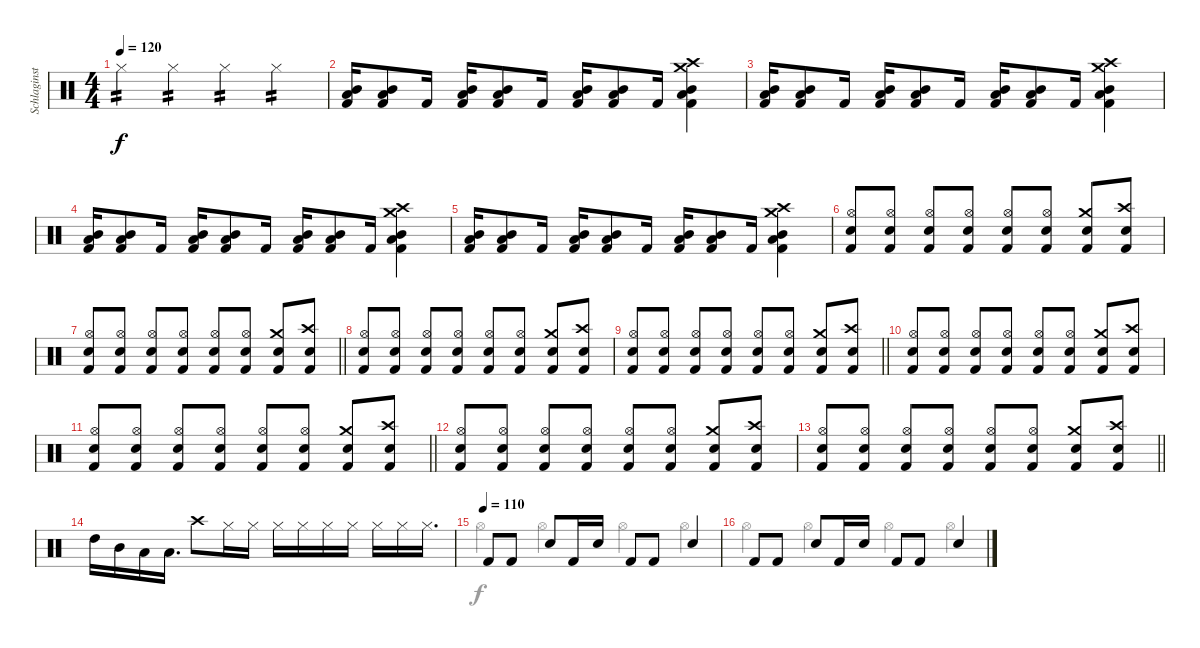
\track ("Schlaginstrumente - Auswahl" "Schlaginst") {instrument percussion}
\staff {score}
\articulation defaults
\voice
\ts (4 4)
\tempo 120
\clef neutral
\ks c "Hi-Hat (closed)".4{tp 2 dy f} "Hi-Hat (closed)".4{tp 2} "Hi-Hat (closed)".4{tp 2} "Hi-Hat (closed)".4{tp 2}
|
("Low Tom (hit)" "Mid Tom (hit)" "Kick (hit) 2").16 ("Low Tom (hit)" "Mid Tom (hit)" "Kick (hit) 2").8 "Kick (hit) 2".16 ("Low Tom (hit)" "Mid Tom (hit)" "Kick (hit) 2").16 ("Low Tom (hit)" "Mid Tom (hit)" "Kick (hit) 2").8 "Kick (hit) 2".16 ("Low Tom (hit)" "Mid Tom (hit)" "Kick (hit) 2").16 ("Low Tom (hit)" "Mid Tom (hit)" "Kick (hit) 2").8 "Kick (hit) 2".16 ("Crash medium (hit)" "Crash high (hit)" "Low Tom (hit)" "Mid Tom (hit)" "Kick (hit) 2").4 |
("Low Tom (hit)" "Mid Tom (hit)" "Kick (hit) 2").16 ("Low Tom (hit)" "Mid Tom (hit)" "Kick (hit) 2").8 "Kick (hit) 2".16 ("Low Tom (hit)" "Mid Tom (hit)" "Kick (hit) 2").16 ("Low Tom (hit)" "Mid Tom (hit)" "Kick (hit) 2").8 "Kick (hit) 2".16 ("Low Tom (hit)" "Mid Tom (hit)" "Kick (hit) 2").16 ("Low Tom (hit)" "Mid Tom (hit)" "Kick (hit) 2").8 "Kick (hit) 2".16 ("Crash medium (hit)" "Crash high (hit)" "Low Tom (hit)" "Mid Tom (hit)" "Kick (hit) 2").4 |
("Low Tom (hit)" "Mid Tom (hit)" "Kick (hit) 2").16 ("Low Tom (hit)" "Mid Tom (hit)" "Kick (hit) 2").8 "Kick (hit) 2".16 ("Low Tom (hit)" "Mid Tom (hit)" "Kick (hit) 2").16 ("Low Tom (hit)" "Mid Tom (hit)" "Kick (hit) 2").8 "Kick (hit) 2".16 ("Low Tom (hit)" "Mid Tom (hit)" "Kick (hit) 2").16 ("Low Tom (hit)" "Mid Tom (hit)" "Kick (hit) 2").8 "Kick (hit) 2".16 ("Crash medium (hit)" "Crash high (hit)" "Low Tom (hit)" "Mid Tom (hit)" "Kick (hit) 2").4 |
("Low Tom (hit)" "Mid Tom (hit)" "Kick (hit) 2").16 ("Low Tom (hit)" "Mid Tom (hit)" "Kick (hit) 2").8 "Kick (hit) 2".16 ("Low Tom (hit)" "Mid Tom (hit)" "Kick (hit) 2").16 ("Low Tom (hit)" "Mid Tom (hit)" "Kick (hit) 2").8 "Kick (hit) 2".16 ("Low Tom (hit)" "Mid Tom (hit)" "Kick (hit) 2").16 ("Low Tom (hit)" "Mid Tom (hit)" "Kick (hit) 2").8 "Kick (hit) 2".16 ("Crash medium (hit)" "Crash high (hit)" "Low Tom (hit)" "Mid Tom (hit)" "Kick (hit) 2").4 |
("Hi-Hat (open)" "Snare (hit) 2" "Kick (hit) 2").8 ("Hi-Hat (open)" "Snare (hit) 2" "Kick (hit) 2").8 ("Hi-Hat (open)" "Snare (hit) 2" "Kick (hit) 2").8 ("Hi-Hat (open)" "Snare (hit) 2" "Kick (hit) 2").8 ("Hi-Hat (open)" "Snare (hit) 2" "Kick (hit) 2").8 ("Hi-Hat (open)" "Snare (hit) 2" "Kick (hit) 2").8 ("Crash medium (hit)" "Snare (hit) 2" "Kick (hit) 2").8 ("Crash high (hit)" "Snare (hit) 2" "Kick (hit) 2").8 |
\barLineRight lightlight
("Hi-Hat (open)" "Snare (hit) 2" "Kick (hit) 2").8 ("Hi-Hat (open)" "Snare (hit) 2" "Kick (hit) 2").8 ("Hi-Hat (open)" "Snare (hit) 2" "Kick (hit) 2").8 ("Hi-Hat (open)" "Snare (hit) 2" "Kick (hit) 2").8 ("Hi-Hat (open)" "Snare (hit) 2" "Kick (hit) 2").8 ("Hi-Hat (open)" "Snare (hit) 2" "Kick (hit) 2").8 ("Crash medium (hit)" "Snare (hit) 2" "Kick (hit) 2").8 ("Crash high (hit)" "Snare (hit) 2" "Kick (hit) 2").8 |
("Hi-Hat (open)" "Snare (hit) 2" "Kick (hit) 2").8 ("Hi-Hat (open)" "Snare (hit) 2" "Kick (hit) 2").8 ("Hi-Hat (open)" "Snare (hit) 2" "Kick (hit) 2").8 ("Hi-Hat (open)" "Snare (hit) 2" "Kick (hit) 2").8 ("Hi-Hat (open)" "Snare (hit) 2" "Kick (hit) 2").8 ("Hi-Hat (open)" "Snare (hit) 2" "Kick (hit) 2").8 ("Crash medium (hit)" "Snare (hit) 2" "Kick (hit) 2").8 ("Crash high (hit)" "Snare (hit) 2" "Kick (hit) 2").8 |
\barLineRight lightlight
("Hi-Hat (open)" "Snare (hit) 2" "Kick (hit) 2").8 ("Hi-Hat (open)" "Snare (hit) 2" "Kick (hit) 2").8 ("Hi-Hat (open)" "Snare (hit) 2" "Kick (hit) 2").8 ("Hi-Hat (open)" "Snare (hit) 2" "Kick (hit) 2").8 ("Hi-Hat (open)" "Snare (hit) 2" "Kick (hit) 2").8 ("Hi-Hat (open)" "Snare (hit) 2" "Kick (hit) 2").8 ("Crash medium (hit)" "Snare (hit) 2" "Kick (hit) 2").8 ("Crash high (hit)" "Snare (hit) 2" "Kick (hit) 2").8 |
("Hi-Hat (open)" "Snare (hit) 2" "Kick (hit) 2").8 ("Hi-Hat (open)" "Snare (hit) 2" "Kick (hit) 2").8 ("Hi-Hat (open)" "Snare (hit) 2" "Kick (hit) 2").8 ("Hi-Hat (open)" "Snare (hit) 2" "Kick (hit) 2").8 ("Hi-Hat (open)" "Snare (hit) 2" "Kick (hit) 2").8 ("Hi-Hat (open)" "Snare (hit) 2" "Kick (hit) 2").8 ("Crash medium (hit)" "Snare (hit) 2" "Kick (hit) 2").8 ("Crash high (hit)" "Snare (hit) 2" "Kick (hit) 2").8 |
\barLineRight lightlight
("Hi-Hat (open)" "Snare (hit) 2" "Kick (hit) 2").8 ("Hi-Hat (open)" "Snare (hit) 2" "Kick (hit) 2").8 ("Hi-Hat (open)" "Snare (hit) 2" "Kick (hit) 2").8 ("Hi-Hat (open)" "Snare (hit) 2" "Kick (hit) 2").8 ("Hi-Hat (open)" "Snare (hit) 2" "Kick (hit) 2").8 ("Hi-Hat (open)" "Snare (hit) 2" "Kick (hit) 2").8 ("Crash medium (hit)" "Snare (hit) 2" "Kick (hit) 2").8 ("Crash high (hit)" "Snare (hit) 2" "Kick (hit) 2").8 |
("Hi-Hat (open)" "Snare (hit) 2" "Kick (hit) 2").8 ("Hi-Hat (open)" "Snare (hit) 2" "Kick (hit) 2").8 ("Hi-Hat (open)" "Snare (hit) 2" "Kick (hit) 2").8 ("Hi-Hat (open)" "Snare (hit) 2" "Kick (hit) 2").8 ("Hi-Hat (open)" "Snare (hit) 2" "Kick (hit) 2").8 ("Hi-Hat (open)" "Snare (hit) 2" "Kick (hit) 2").8 ("Crash medium (hit)" "Snare (hit) 2" "Kick (hit) 2").8 ("Crash high (hit)" "Snare (hit) 2" "Kick (hit) 2").8 |
\barLineRight lightlight
("Hi-Hat (open)" "Snare (hit) 2" "Kick (hit) 2").8 ("Hi-Hat (open)" "Snare (hit) 2" "Kick (hit) 2").8 ("Hi-Hat (open)" "Snare (hit) 2" "Kick (hit) 2").8 ("Hi-Hat (open)" "Snare (hit) 2" "Kick (hit) 2").8 ("Hi-Hat (open)" "Snare (hit) 2" "Kick (hit) 2").8 ("Hi-Hat (open)" "Snare (hit) 2" "Kick (hit) 2").8 ("Crash medium (hit)" "Snare (hit) 2" "Kick (hit) 2").8 ("Crash high (hit)" "Snare (hit) 2" "Kick (hit) 2").8 |
"High Tom (hit)".16 "Mid Tom (hit)".16 "Low Tom (hit)".16 "Low Floor Tom (hit)".16{d} "Crash high (hit)".8 "Hi-Hat (closed)".16 "Hi-Hat (closed)".16 "Hi-Hat (closed)".16 "Hi-Hat (closed)".16 "Hi-Hat (closed)".16 "Hi-Hat (closed)".16 "Hi-Hat (closed)".16 "Hi-Hat (closed)".16 "Hi-Hat (closed)".16{d} |
\tempo (110)
"Kick (hit) 2".8 "Kick (hit) 2".8 "Snare (hit) 2".8 "Kick (hit) 2".16 "Snare (hit) 2".16 "Kick (hit) 2".8 "Kick (hit) 2".8 "Snare (hit) 2".4 |
"Kick (hit) 2".8 "Kick (hit) 2".8 "Snare (hit) 2".8 "Kick (hit) 2".16 "Snare (hit) 2".16 "Kick (hit) 2".8 "Kick (hit) 2".8 "Snare (hit) 2".4
\voice
\clef neutral
\ottava regular
\simile none
\ks c
|
|
|
|
|
|
\barLineRight lightlight
|
|
\barLineRight lightlight
|
|
\barLineRight lightlight
|
|
\barLineRight lightlight
|
|
"Hi-Hat (open)".4 "Hi-Hat (open)".4 "Hi-Hat (open)".4 "Hi-Hat (open)".4 |
"Hi-Hat (open)".4 "Hi-Hat (open)".4 "Hi-Hat (open)".4 "Hi-Hat (open)".4
